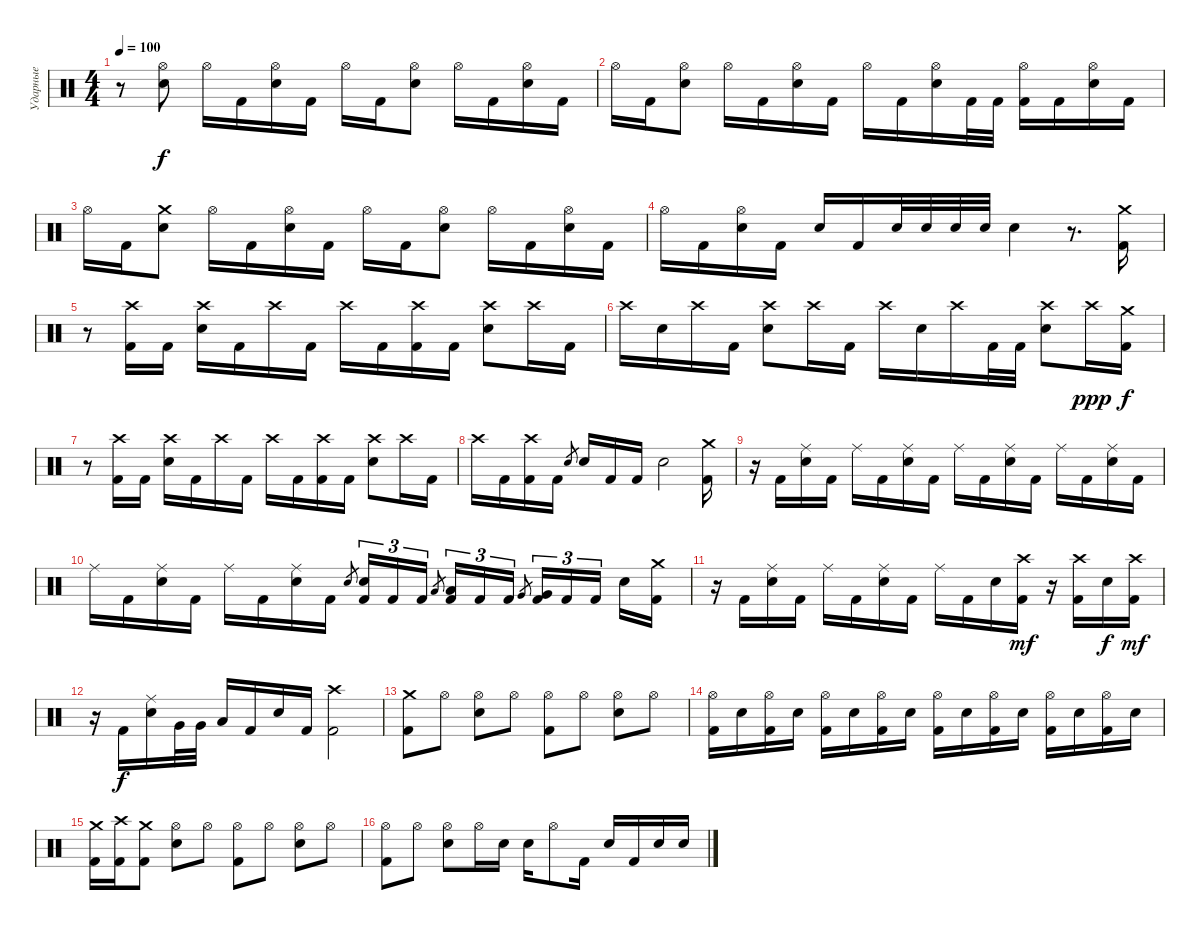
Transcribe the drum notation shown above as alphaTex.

\track ("Ударные" "Ударные") {instrument percussion}
\staff {score}
\articulation defaults
\ts (4 4)
\tempo 100
\clef neutral
\ks c
r.8{dy f} ("Hi-Hat (open)" "Snare (hit) 2").8 "Hi-Hat (open)".16 "Kick (hit) 2".16 ("Hi-Hat (open)" "Snare (hit) 2").16 "Kick (hit) 2".16 "Hi-Hat (open)".16 "Kick (hit) 2".16 ("Hi-Hat (open)" "Snare (hit) 2").8 "Hi-Hat (open)".16 "Kick (hit) 2".16 ("Hi-Hat (open)" "Snare (hit) 2").16 "Kick (hit) 2".16 |
"Hi-Hat (open)".16 "Kick (hit) 2".16 ("Hi-Hat (open)" "Snare (hit) 2").8 "Hi-Hat (open)".16 "Kick (hit) 2".16 ("Hi-Hat (open)" "Snare (hit) 2").16 "Kick (hit) 2".16 "Hi-Hat (open)".16 "Kick (hit) 2".16 ("Hi-Hat (open)" "Snare (hit) 2").16 "Kick (hit) 2".32 "Kick (hit) 2".32 ("Hi-Hat (open)" "Kick (hit) 2").16 "Kick (hit) 2".16 ("Hi-Hat (open)" "Snare (hit) 2").16 "Kick (hit) 2".16 |
"Hi-Hat (open)".16 "Kick (hit) 2".16 ("Crash medium (hit)" "Snare (hit) 2").8 "Hi-Hat (open)".16 "Kick (hit) 2".16 ("Hi-Hat (open)" "Snare (hit) 2").16 "Kick (hit) 2".16 "Hi-Hat (open)".16 "Kick (hit) 2".16 ("Hi-Hat (open)" "Snare (hit) 2").8 "Hi-Hat (open)".16 "Kick (hit) 2".16 ("Hi-Hat (open)" "Snare (hit) 2").16 "Kick (hit) 2".16 |
"Hi-Hat (open)".16 "Kick (hit) 2".16 ("Hi-Hat (open)" "Snare (hit) 2").16 "Kick (hit) 2".16 "Snare (hit) 2".16 "Kick (hit) 2".16 "Snare (hit) 2".32 "Snare (hit) 2".32 "Snare (hit) 2".32 "Snare (hit) 2".32 "Snare (hit) 2".4 r.8{d} ("Crash medium (hit)" "Kick (hit) 2").16 |
r.8 ("Crash high (hit)" "Kick (hit) 2").16 "Kick (hit) 2".16 ("Crash high (hit)" "Snare (hit) 2").16 "Kick (hit) 2".16 "Crash high (hit)".16 "Kick (hit) 2".16 "Crash high (hit)".16 "Kick (hit) 2".16 ("Crash high (hit)" "Kick (hit) 2").16 "Kick (hit) 2".16 ("Crash high (hit)" "Snare (hit) 2").8 "Crash high (hit)".16 "Kick (hit) 2".16 |
"Crash high (hit)".16 "Snare (hit) 2".16 "Crash high (hit)".16 "Kick (hit) 2".16 ("Crash high (hit)" "Snare (hit) 2").8 "Crash high (hit)".16 "Kick (hit) 2".16 "Crash high (hit)".16 "Snare (hit) 2".16 "Crash high (hit)".16 "Kick (hit) 2".32 "Kick (hit) 2".32 ("Crash high (hit)" "Snare (hit) 2").8 "Crash high (hit)".16{dy ppp} ("Crash medium (hit)" "Kick (hit) 2").16{dy f} |
r.8 ("Crash high (hit)" "Kick (hit) 2").16 "Kick (hit) 2".16 ("Crash high (hit)" "Snare (hit) 2").16 "Kick (hit) 2".16 "Crash high (hit)".16 "Kick (hit) 2".16 "Crash high (hit)".16 "Kick (hit) 2".16 ("Crash high (hit)" "Kick (hit) 2").16 "Kick (hit) 2".16 ("Crash high (hit)" "Snare (hit) 2").8 "Crash high (hit)".16 "Kick (hit) 2".16 |
"Crash high (hit)".16 "Kick (hit) 2".16 ("Crash high (hit)" "Kick (hit) 2").16 "Kick (hit) 2".16 "Snare (hit) 2".8{gr} "Snare (hit) 2".16 "Kick (hit) 2".16 "Kick (hit) 2".16 "Snare (hit) 2".2 ("Crash medium (hit)" "Kick (hit) 2").16 |
r.16 "Kick (hit) 2".16 ("Ride (middle)" "Snare (hit) 2").16 "Kick (hit) 2".16 "Ride (middle)".16 "Kick (hit) 2".16 ("Ride (middle)" "Snare (hit) 2").16 "Kick (hit) 2".16 "Ride (middle)".16 "Kick (hit) 2".16 ("Ride (middle)" "Snare (hit) 2").16 "Kick (hit) 2".16 "Ride (middle)".16 "Kick (hit) 2".16 ("Ride (middle)" "Snare (hit) 2").16 "Kick (hit) 2".16 |
"Ride (middle)".16 "Kick (hit) 2".16 ("Ride (middle)" "Snare (hit) 2").16 "Kick (hit) 2".16 "Ride (middle)".16 "Kick (hit) 2".16 ("Ride (middle)" "Snare (hit) 2").16 "Kick (hit) 2".16 "Snare (hit) 2".8{gr} ("Kick (hit) 2" "Snare (hit) 2").16{tu (3 2)} "Kick (hit) 2".16{tu (3 2)} "Kick (hit) 2".16{tu (3 2)} "Low Tom (hit)".8{gr beam splitsecondary} ("Low Tom (hit)" "Kick (hit) 2").16{tu (3 2)} "Kick (hit) 2".16{tu (3 2)} "Kick (hit) 2".16{tu (3 2)} "Very Low Tom (hit)".8{gr} ("Very Low Tom (hit)" "Kick (hit) 2").16{tu (3 2)} "Kick (hit) 2".16{tu (3 2)} "Kick (hit) 2".16{tu (3 2) beam splitsecondary} "Snare (hit) 2".16 ("Crash medium (hit)" "Kick (hit) 2").16 |
r.16 "Kick (hit) 2".16 ("Ride (middle)" "Snare (hit) 2").16 "Kick (hit) 2".16 "Ride (middle)".16 "Kick (hit) 2".16 ("Ride (middle)" "Snare (hit) 2").16 "Kick (hit) 2".16 "Ride (middle)".16 "Kick (hit) 2".16 "Snare (hit) 2".16 ("Crash high (hit)" "Kick (hit) 2").16{dy mf} r.16 ("Crash high (hit)" "Kick (hit) 2").16 "Snare (hit) 2".16{dy f} ("Crash high (hit)" "Kick (hit) 2").16{dy mf} |
r.16 "Kick (hit) 2".16{dy f} ("Ride (middle)" "Snare (hit) 2").16 "Very Low Tom (hit)".32 "Very Low Tom (hit)".32 "Low Floor Tom (hit)".16 "Kick (hit) 2".16 "Snare (hit) 2".16 "Kick (hit) 2".16 ("Crash high (hit)" "Kick (hit) 2").2 |
("Crash medium (hit)" "Kick (hit) 2").8 "Hi-Hat (open)".8 ("Hi-Hat (open)" "Snare (hit) 2").8 "Hi-Hat (open)".8 ("Hi-Hat (open)" "Kick (hit) 2").8 "Hi-Hat (open)".8 ("Hi-Hat (open)" "Snare (hit) 2").8 "Hi-Hat (open)".8 |
("Hi-Hat (open)" "Kick (hit) 2").16 "Snare (hit) 2".16 ("Hi-Hat (open)" "Kick (hit) 2").16 "Snare (hit) 2".16 ("Hi-Hat (open)" "Kick (hit) 2").16 "Snare (hit) 2".16 ("Hi-Hat (open)" "Kick (hit) 2").16 "Snare (hit) 2".16 ("Hi-Hat (open)" "Kick (hit) 2").16 "Snare (hit) 2".16 ("Hi-Hat (open)" "Kick (hit) 2").16 "Snare (hit) 2".16 ("Hi-Hat (open)" "Kick (hit) 2").16 "Snare (hit) 2".16 ("Hi-Hat (open)" "Kick (hit) 2").16 "Snare (hit) 2".16 |
("Crash medium (hit)" "Kick (hit) 2").16 ("Crash high (hit)" "Kick (hit) 2").16 ("Crash medium (hit)" "Kick (hit) 2").8 ("Hi-Hat (open)" "Snare (hit) 2").8 "Hi-Hat (open)".8 ("Hi-Hat (open)" "Kick (hit) 2").8 "Hi-Hat (open)".8 ("Hi-Hat (open)" "Snare (hit) 2").8 "Hi-Hat (open)".8 |
("Hi-Hat (open)" "Kick (hit) 2").8 "Hi-Hat (open)".8 ("Hi-Hat (open)" "Snare (hit) 2").8 "Hi-Hat (open)".16 "Snare (hit) 2".16 "Snare (hit) 2".16 "Hi-Hat (open)".8 "Kick (hit) 2".16 "Snare (hit) 2".16 "Kick (hit) 2".16 "Snare (hit) 2".16 "Snare (hit) 2".16
